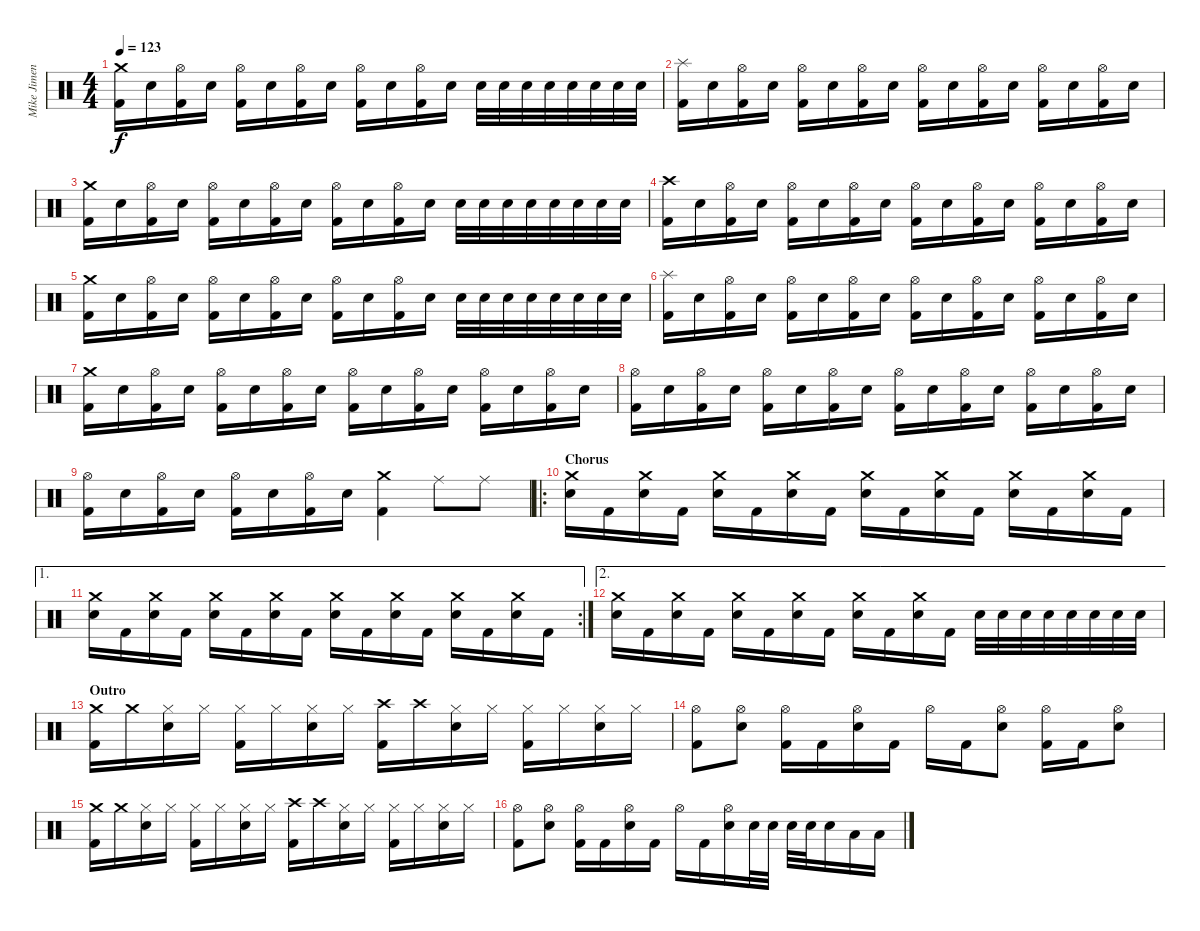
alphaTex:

\track ("Mike Jimenez Drums" "Mike Jimen") {instrument percussion}
\staff {score}
\articulation defaults
\ts (4 4)
\tempo 123
\clef neutral
\ks c
("Crash medium (hit)" "Kick (hit) 2").16{dy f} "Electric Snare (hit)".16 ("Hi-Hat (open)" "Kick (hit) 2").16 "Electric Snare (hit)".16 ("Hi-Hat (open)" "Kick (hit) 2").16 "Electric Snare (hit)".16 ("Hi-Hat (open)" "Kick (hit) 2").16 "Electric Snare (hit)".16 ("Hi-Hat (open)" "Kick (hit) 2").16 "Electric Snare (hit)".16 ("Hi-Hat (open)" "Kick (hit) 2").16 "Electric Snare (hit)".16 "Electric Snare (hit)".32 "Electric Snare (hit)".32 "Electric Snare (hit)".32 "Electric Snare (hit)".32 "Electric Snare (hit)".32 "Electric Snare (hit)".32 "Electric Snare (hit)".32 "Electric Snare (hit)".32 |
("Splash (hit)" "Kick (hit) 2").16 "Electric Snare (hit)".16 ("Hi-Hat (open)" "Kick (hit) 2").16 "Electric Snare (hit)".16 ("Hi-Hat (open)" "Kick (hit) 2").16 "Electric Snare (hit)".16 ("Hi-Hat (open)" "Kick (hit) 2").16 "Electric Snare (hit)".16 ("Hi-Hat (open)" "Kick (hit) 2").16 "Electric Snare (hit)".16 ("Hi-Hat (open)" "Kick (hit) 2").16 "Electric Snare (hit)".16 ("Hi-Hat (open)" "Kick (hit) 2").16 "Electric Snare (hit)".16 ("Hi-Hat (open)" "Kick (hit) 2").16 "Electric Snare (hit)".16 |
("Crash medium (hit)" "Kick (hit) 2").16 "Electric Snare (hit)".16 ("Hi-Hat (open)" "Kick (hit) 2").16 "Electric Snare (hit)".16 ("Hi-Hat (open)" "Kick (hit) 2").16 "Electric Snare (hit)".16 ("Hi-Hat (open)" "Kick (hit) 2").16 "Electric Snare (hit)".16 ("Hi-Hat (open)" "Kick (hit) 2").16 "Electric Snare (hit)".16 ("Hi-Hat (open)" "Kick (hit) 2").16 "Electric Snare (hit)".16 "Electric Snare (hit)".32 "Electric Snare (hit)".32 "Electric Snare (hit)".32 "Electric Snare (hit)".32 "Electric Snare (hit)".32 "Electric Snare (hit)".32 "Electric Snare (hit)".32 "Electric Snare (hit)".32 |
("Crash high (hit)" "Kick (hit) 2").16 "Electric Snare (hit)".16 ("Hi-Hat (open)" "Kick (hit) 2").16 "Electric Snare (hit)".16 ("Hi-Hat (open)" "Kick (hit) 2").16 "Electric Snare (hit)".16 ("Hi-Hat (open)" "Kick (hit) 2").16 "Electric Snare (hit)".16 ("Hi-Hat (open)" "Kick (hit) 2").16 "Electric Snare (hit)".16 ("Hi-Hat (open)" "Kick (hit) 2").16 "Electric Snare (hit)".16 ("Hi-Hat (open)" "Kick (hit) 2").16 "Electric Snare (hit)".16 ("Hi-Hat (open)" "Kick (hit) 2").16 "Electric Snare (hit)".16 |
("Crash medium (hit)" "Kick (hit) 2").16 "Electric Snare (hit)".16 ("Hi-Hat (open)" "Kick (hit) 2").16 "Electric Snare (hit)".16 ("Hi-Hat (open)" "Kick (hit) 2").16 "Electric Snare (hit)".16 ("Hi-Hat (open)" "Kick (hit) 2").16 "Electric Snare (hit)".16 ("Hi-Hat (open)" "Kick (hit) 2").16 "Electric Snare (hit)".16 ("Hi-Hat (open)" "Kick (hit) 2").16 "Electric Snare (hit)".16 "Electric Snare (hit)".32 "Electric Snare (hit)".32 "Electric Snare (hit)".32 "Electric Snare (hit)".32 "Electric Snare (hit)".32 "Electric Snare (hit)".32 "Electric Snare (hit)".32 "Electric Snare (hit)".32 |
("Splash (hit)" "Kick (hit) 2").16 "Electric Snare (hit)".16 ("Hi-Hat (open)" "Kick (hit) 2").16 "Electric Snare (hit)".16 ("Hi-Hat (open)" "Kick (hit) 2").16 "Electric Snare (hit)".16 ("Hi-Hat (open)" "Kick (hit) 2").16 "Electric Snare (hit)".16 ("Hi-Hat (open)" "Kick (hit) 2").16 "Electric Snare (hit)".16 ("Hi-Hat (open)" "Kick (hit) 2").16 "Electric Snare (hit)".16 ("Hi-Hat (open)" "Kick (hit) 2").16 "Electric Snare (hit)".16 ("Hi-Hat (open)" "Kick (hit) 2").16 "Electric Snare (hit)".16 |
("Crash medium (hit)" "Kick (hit) 2").16 "Electric Snare (hit)".16 ("Hi-Hat (open)" "Kick (hit) 2").16 "Electric Snare (hit)".16 ("Hi-Hat (open)" "Kick (hit) 2").16 "Electric Snare (hit)".16 ("Hi-Hat (open)" "Kick (hit) 2").16 "Electric Snare (hit)".16 ("Hi-Hat (open)" "Kick (hit) 2").16 "Electric Snare (hit)".16 ("Hi-Hat (open)" "Kick (hit) 2").16 "Electric Snare (hit)".16 ("Hi-Hat (open)" "Kick (hit) 2").16 "Electric Snare (hit)".16 ("Hi-Hat (open)" "Kick (hit) 2").16 "Electric Snare (hit)".16 |
("Hi-Hat (open)" "Kick (hit) 2").16 "Electric Snare (hit)".16 ("Hi-Hat (open)" "Kick (hit) 2").16 "Electric Snare (hit)".16 ("Hi-Hat (open)" "Kick (hit) 2").16 "Electric Snare (hit)".16 ("Hi-Hat (open)" "Kick (hit) 2").16 "Electric Snare (hit)".16 ("Hi-Hat (open)" "Kick (hit) 2").16 "Electric Snare (hit)".16 ("Hi-Hat (open)" "Kick (hit) 2").16 "Electric Snare (hit)".16 ("Hi-Hat (open)" "Kick (hit) 2").16 "Electric Snare (hit)".16 ("Hi-Hat (open)" "Kick (hit) 2").16 "Electric Snare (hit)".16 |
("Hi-Hat (open)" "Kick (hit) 2").16 "Electric Snare (hit)".16 ("Hi-Hat (open)" "Kick (hit) 2").16 "Electric Snare (hit)".16 ("Hi-Hat (open)" "Kick (hit) 2").16 "Electric Snare (hit)".16 ("Hi-Hat (open)" "Kick (hit) 2").16 "Electric Snare (hit)".16 ("Crash medium (hit)" "Kick (hit) 2").4 "Ride (middle)".8 "Ride (middle)".8 |
\ro
\section ("" "Chorus")
("Crash medium (hit)" "Electric Snare (hit)").16 "Kick (hit) 2".16 ("Crash medium (hit)" "Electric Snare (hit)").16 "Kick (hit) 2".16 ("Crash medium (hit)" "Electric Snare (hit)").16 "Kick (hit) 2".16 ("Crash medium (hit)" "Electric Snare (hit)").16 "Kick (hit) 2".16 ("Crash medium (hit)" "Electric Snare (hit)").16 "Kick (hit) 2".16 ("Crash medium (hit)" "Electric Snare (hit)").16 "Kick (hit) 2".16 ("Crash medium (hit)" "Electric Snare (hit)").16 "Kick (hit) 2".16 ("Crash medium (hit)" "Electric Snare (hit)").16 "Kick (hit) 2".16 |
\ae 1
\rc 2
("Crash medium (hit)" "Electric Snare (hit)").16 "Kick (hit) 2".16 ("Crash medium (hit)" "Electric Snare (hit)").16 "Kick (hit) 2".16 ("Crash medium (hit)" "Electric Snare (hit)").16 "Kick (hit) 2".16 ("Crash medium (hit)" "Electric Snare (hit)").16 "Kick (hit) 2".16 ("Crash medium (hit)" "Electric Snare (hit)").16 "Kick (hit) 2".16 ("Crash medium (hit)" "Electric Snare (hit)").16 "Kick (hit) 2".16 ("Crash medium (hit)" "Electric Snare (hit)").16 "Kick (hit) 2".16 ("Crash medium (hit)" "Electric Snare (hit)").16 "Kick (hit) 2".16 |
\ae 2
("Crash medium (hit)" "Electric Snare (hit)").16 "Kick (hit) 2".16 ("Crash medium (hit)" "Electric Snare (hit)").16 "Kick (hit) 2".16 ("Crash medium (hit)" "Electric Snare (hit)").16 "Kick (hit) 2".16 ("Crash medium (hit)" "Electric Snare (hit)").16 "Kick (hit) 2".16 ("Crash medium (hit)" "Electric Snare (hit)").16 "Kick (hit) 2".16 ("Crash medium (hit)" "Electric Snare (hit)").16 "Kick (hit) 2".16 "Electric Snare (hit)".32 "Electric Snare (hit)".32 "Electric Snare (hit)".32 "Electric Snare (hit)".32 "Electric Snare (hit)".32 "Electric Snare (hit)".32 "Electric Snare (hit)".32 "Electric Snare (hit)".32 |
\section ("" "Outro")
("Crash medium (hit)" "Kick (hit) 2").16 "Crash medium (hit)".16 ("Hi-Hat (closed)" "Electric Snare (hit)").16 "Hi-Hat (closed)".16 ("Hi-Hat (closed)" "Kick (hit) 2").16 "Hi-Hat (closed)".16 ("Hi-Hat (closed)" "Electric Snare (hit)").16 "Hi-Hat (closed)".16 ("Crash high (hit)" "Kick (hit) 2").16 "Crash high (hit)".16 ("Hi-Hat (closed)" "Electric Snare (hit)").16 "Hi-Hat (closed)".16 ("Hi-Hat (closed)" "Kick (hit) 2").16 "Hi-Hat (closed)".16 ("Hi-Hat (closed)" "Electric Snare (hit)").16 "Hi-Hat (closed)".16 |
("Hi-Hat (open)" "Kick (hit) 2").8 ("Hi-Hat (open)" "Electric Snare (hit)").8 ("Hi-Hat (open)" "Kick (hit) 2").16 "Kick (hit) 2".16 ("Hi-Hat (open)" "Electric Snare (hit)").16 "Kick (hit) 2".16 "Hi-Hat (open)".16 "Kick (hit) 2".16 ("Hi-Hat (open)" "Electric Snare (hit)").8 ("Hi-Hat (open)" "Kick (hit) 2").16 "Kick (hit) 2".16 ("Hi-Hat (open)" "Electric Snare (hit)").8 |
("Crash medium (hit)" "Kick (hit) 2").16 "Crash medium (hit)".16 ("Hi-Hat (closed)" "Electric Snare (hit)").16 "Hi-Hat (closed)".16 ("Hi-Hat (closed)" "Kick (hit) 2").16 "Hi-Hat (closed)".16 ("Hi-Hat (closed)" "Electric Snare (hit)").16 "Hi-Hat (closed)".16 ("Crash high (hit)" "Kick (hit) 2").16 "Crash high (hit)".16 ("Hi-Hat (closed)" "Electric Snare (hit)").16 "Hi-Hat (closed)".16 ("Hi-Hat (closed)" "Kick (hit) 2").16 "Hi-Hat (closed)".16 ("Hi-Hat (closed)" "Electric Snare (hit)").16 "Hi-Hat (closed)".16 |
("Hi-Hat (open)" "Kick (hit) 2").8 ("Hi-Hat (open)" "Electric Snare (hit)").8 ("Hi-Hat (open)" "Kick (hit) 2").16 "Kick (hit) 2".16 ("Hi-Hat (open)" "Electric Snare (hit)").16 "Kick (hit) 2".16 "Hi-Hat (open)".16 "Kick (hit) 2".16 ("Hi-Hat (open)" "Electric Snare (hit)").16 "Electric Snare (hit)".32 "Electric Snare (hit)".32 "Electric Snare (hit)".32 "Electric Snare (hit)".32 "Electric Snare (hit)".16 "Low Tom (hit)".16 "Low Tom (hit)".16
